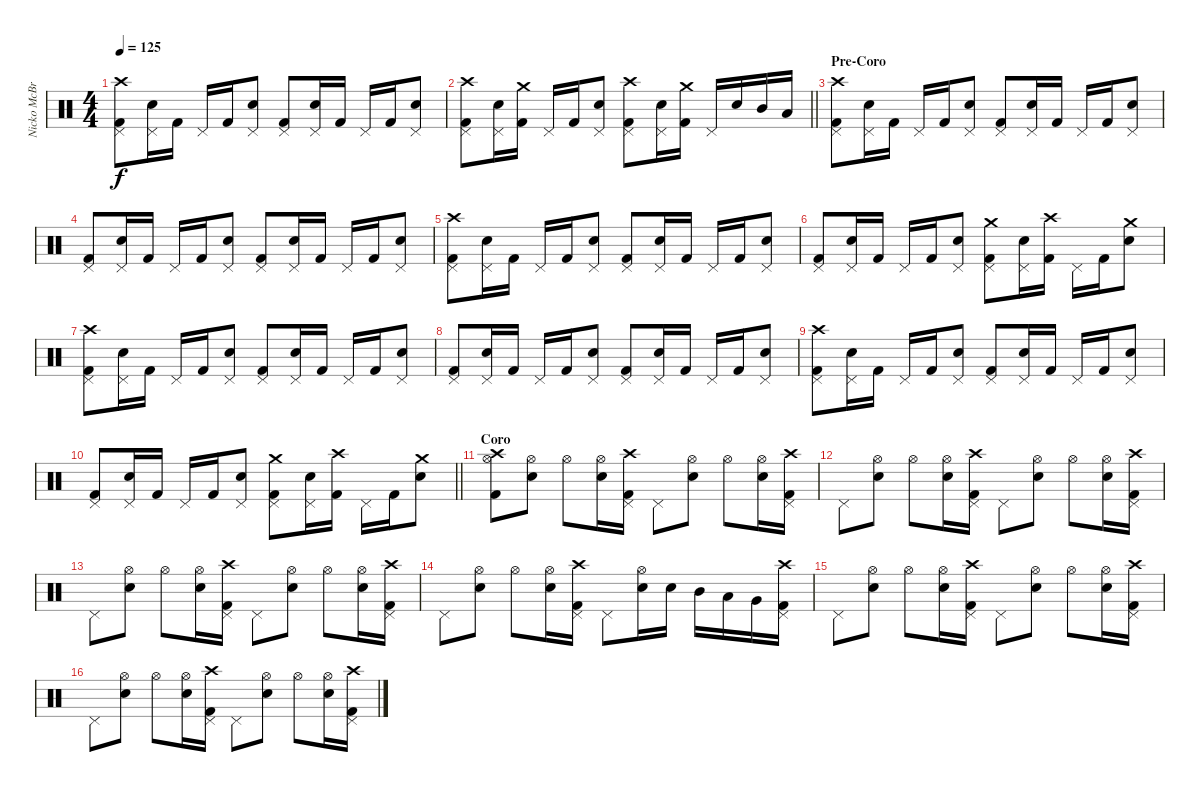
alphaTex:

\track ("Nicko McBrain" "Nicko McBr") {instrument percussion}
\staff {score}
\articulation defaults
\ts (4 4)
\tempo 125
\clef neutral
\ks c
("Kick (hit) 2" "Pedal Hi-Hat (hit)" "Crash high (hit)").8{dy f} ("Snare (hit) 2" "Pedal Hi-Hat (hit)").16 "Kick (hit) 2".16 "Pedal Hi-Hat (hit)".16 "Kick (hit) 2".16 ("Snare (hit) 2" "Pedal Hi-Hat (hit)").8 ("Kick (hit) 2" "Pedal Hi-Hat (hit)").8 ("Snare (hit) 2" "Pedal Hi-Hat (hit)").16 "Kick (hit) 2".16 "Pedal Hi-Hat (hit)".16 "Kick (hit) 2".16 ("Snare (hit) 2" "Pedal Hi-Hat (hit)").8 |
\barLineRight lightlight
("Kick (hit) 2" "Pedal Hi-Hat (hit)" "Crash high (hit)").8 ("Snare (hit) 2" "Pedal Hi-Hat (hit)").16 ("Kick (hit) 2" "Crash medium (hit)").16 "Pedal Hi-Hat (hit)".16 "Kick (hit) 2".16 ("Snare (hit) 2" "Pedal Hi-Hat (hit)").8 ("Kick (hit) 2" "Pedal Hi-Hat (hit)" "Crash high (hit)").8 ("Snare (hit) 2" "Pedal Hi-Hat (hit)").16 ("Kick (hit) 2" "Crash medium (hit)").16 "Pedal Hi-Hat (hit)".16 "Snare (hit) 2".16 "Mid Tom (hit)".16 "Low Tom (hit)".16 |
\section ("" "Pre-Coro")
("Kick (hit) 2" "Pedal Hi-Hat (hit)" "Crash high (hit)").8 ("Snare (hit) 2" "Pedal Hi-Hat (hit)").16 "Kick (hit) 2".16 "Pedal Hi-Hat (hit)".16 "Kick (hit) 2".16 ("Snare (hit) 2" "Pedal Hi-Hat (hit)").8 ("Kick (hit) 2" "Pedal Hi-Hat (hit)").8 ("Snare (hit) 2" "Pedal Hi-Hat (hit)").16 "Kick (hit) 2".16 "Pedal Hi-Hat (hit)".16 "Kick (hit) 2".16 ("Snare (hit) 2" "Pedal Hi-Hat (hit)").8 |
("Kick (hit) 2" "Pedal Hi-Hat (hit)").8 ("Snare (hit) 2" "Pedal Hi-Hat (hit)").16 "Kick (hit) 2".16 "Pedal Hi-Hat (hit)".16 "Kick (hit) 2".16 ("Snare (hit) 2" "Pedal Hi-Hat (hit)").8 ("Kick (hit) 2" "Pedal Hi-Hat (hit)").8 ("Snare (hit) 2" "Pedal Hi-Hat (hit)").16 "Kick (hit) 2".16 "Pedal Hi-Hat (hit)".16 "Kick (hit) 2".16 ("Snare (hit) 2" "Pedal Hi-Hat (hit)").8 |
("Kick (hit) 2" "Pedal Hi-Hat (hit)" "Crash high (hit)").8 ("Snare (hit) 2" "Pedal Hi-Hat (hit)").16 "Kick (hit) 2".16 "Pedal Hi-Hat (hit)".16 "Kick (hit) 2".16 ("Snare (hit) 2" "Pedal Hi-Hat (hit)").8 ("Kick (hit) 2" "Pedal Hi-Hat (hit)").8 ("Snare (hit) 2" "Pedal Hi-Hat (hit)").16 "Kick (hit) 2".16 "Pedal Hi-Hat (hit)".16 "Kick (hit) 2".16 ("Snare (hit) 2" "Pedal Hi-Hat (hit)").8 |
("Kick (hit) 2" "Pedal Hi-Hat (hit)").8 ("Snare (hit) 2" "Pedal Hi-Hat (hit)").16 "Kick (hit) 2".16 "Pedal Hi-Hat (hit)".16 "Kick (hit) 2".16 ("Snare (hit) 2" "Pedal Hi-Hat (hit)").8 ("Kick (hit) 2" "Pedal Hi-Hat (hit)" "Crash medium (hit)").8 ("Snare (hit) 2" "Pedal Hi-Hat (hit)").16 ("Kick (hit) 2" "Crash high (hit)").16 "Pedal Hi-Hat (hit)".16 "Kick (hit) 2".16 ("Snare (hit) 2" "Crash medium (hit)").8 |
("Kick (hit) 2" "Pedal Hi-Hat (hit)" "Crash high (hit)").8 ("Snare (hit) 2" "Pedal Hi-Hat (hit)").16 "Kick (hit) 2".16 "Pedal Hi-Hat (hit)".16 "Kick (hit) 2".16 ("Snare (hit) 2" "Pedal Hi-Hat (hit)").8 ("Kick (hit) 2" "Pedal Hi-Hat (hit)").8 ("Snare (hit) 2" "Pedal Hi-Hat (hit)").16 "Kick (hit) 2".16 "Pedal Hi-Hat (hit)".16 "Kick (hit) 2".16 ("Snare (hit) 2" "Pedal Hi-Hat (hit)").8 |
("Kick (hit) 2" "Pedal Hi-Hat (hit)").8 ("Snare (hit) 2" "Pedal Hi-Hat (hit)").16 "Kick (hit) 2".16 "Pedal Hi-Hat (hit)".16 "Kick (hit) 2".16 ("Snare (hit) 2" "Pedal Hi-Hat (hit)").8 ("Kick (hit) 2" "Pedal Hi-Hat (hit)").8 ("Snare (hit) 2" "Pedal Hi-Hat (hit)").16 "Kick (hit) 2".16 "Pedal Hi-Hat (hit)".16 "Kick (hit) 2".16 ("Snare (hit) 2" "Pedal Hi-Hat (hit)").8 |
("Kick (hit) 2" "Pedal Hi-Hat (hit)" "Crash high (hit)").8 ("Snare (hit) 2" "Pedal Hi-Hat (hit)").16 "Kick (hit) 2".16 "Pedal Hi-Hat (hit)".16 "Kick (hit) 2".16 ("Snare (hit) 2" "Pedal Hi-Hat (hit)").8 ("Kick (hit) 2" "Pedal Hi-Hat (hit)").8 ("Snare (hit) 2" "Pedal Hi-Hat (hit)").16 "Kick (hit) 2".16 "Pedal Hi-Hat (hit)".16 "Kick (hit) 2".16 ("Snare (hit) 2" "Pedal Hi-Hat (hit)").8 |
\barLineRight lightlight
("Kick (hit) 2" "Pedal Hi-Hat (hit)").8 ("Snare (hit) 2" "Pedal Hi-Hat (hit)").16 "Kick (hit) 2".16 "Pedal Hi-Hat (hit)".16 "Kick (hit) 2".16 ("Snare (hit) 2" "Pedal Hi-Hat (hit)").8 ("Kick (hit) 2" "Pedal Hi-Hat (hit)" "Crash medium (hit)").8 ("Snare (hit) 2" "Pedal Hi-Hat (hit)").16 ("Kick (hit) 2" "Crash high (hit)").16 "Pedal Hi-Hat (hit)".16 "Kick (hit) 2".16 ("Snare (hit) 2" "Crash medium (hit)").8 |
\section ("" "Coro")
("Kick (hit) 2" "Hi-Hat (open)" "Crash high (hit)").8 ("Snare (hit) 2" "Hi-Hat (open)").8 "Hi-Hat (open)".8 ("Snare (hit) 2" "Hi-Hat (open)").16 ("Kick (hit) 2" "Pedal Hi-Hat (hit)" "Crash high (hit)").16 "Pedal Hi-Hat (hit)".8 ("Snare (hit) 2" "Hi-Hat (open)").8 "Hi-Hat (open)".8 ("Snare (hit) 2" "Hi-Hat (open)").16 ("Kick (hit) 2" "Pedal Hi-Hat (hit)" "Crash high (hit)").16 |
"Pedal Hi-Hat (hit)".8 ("Snare (hit) 2" "Hi-Hat (open)").8 "Hi-Hat (open)".8 ("Snare (hit) 2" "Hi-Hat (open)").16 ("Kick (hit) 2" "Pedal Hi-Hat (hit)" "Crash high (hit)").16 "Pedal Hi-Hat (hit)".8 ("Snare (hit) 2" "Hi-Hat (open)").8 "Hi-Hat (open)".8 ("Snare (hit) 2" "Hi-Hat (open)").16 ("Kick (hit) 2" "Pedal Hi-Hat (hit)" "Crash high (hit)").16 |
"Pedal Hi-Hat (hit)".8 ("Snare (hit) 2" "Hi-Hat (open)").8 "Hi-Hat (open)".8 ("Snare (hit) 2" "Hi-Hat (open)").16 ("Kick (hit) 2" "Pedal Hi-Hat (hit)" "Crash high (hit)").16 "Pedal Hi-Hat (hit)".8 ("Snare (hit) 2" "Hi-Hat (open)").8 "Hi-Hat (open)".8 ("Snare (hit) 2" "Hi-Hat (open)").16 ("Kick (hit) 2" "Pedal Hi-Hat (hit)" "Crash high (hit)").16 |
"Pedal Hi-Hat (hit)".8 ("Snare (hit) 2" "Hi-Hat (open)").8 "Hi-Hat (open)".8 ("Snare (hit) 2" "Hi-Hat (open)").16 ("Kick (hit) 2" "Pedal Hi-Hat (hit)" "Crash high (hit)").16 "Pedal Hi-Hat (hit)".8 ("Snare (hit) 2" "Hi-Hat (open)").16 "Snare (hit) 2".16 "Mid Tom (hit)".16 "Low Tom (hit)".16 "Very Low Tom (hit)".16 ("Kick (hit) 2" "Pedal Hi-Hat (hit)" "Crash high (hit)").16 |
"Pedal Hi-Hat (hit)".8 ("Snare (hit) 2" "Hi-Hat (open)").8 "Hi-Hat (open)".8 ("Snare (hit) 2" "Hi-Hat (open)").16 ("Kick (hit) 2" "Pedal Hi-Hat (hit)" "Crash high (hit)").16 "Pedal Hi-Hat (hit)".8 ("Snare (hit) 2" "Hi-Hat (open)").8 "Hi-Hat (open)".8 ("Snare (hit) 2" "Hi-Hat (open)").16 ("Kick (hit) 2" "Pedal Hi-Hat (hit)" "Crash high (hit)").16 |
"Pedal Hi-Hat (hit)".8 ("Snare (hit) 2" "Hi-Hat (open)").8 "Hi-Hat (open)".8 ("Snare (hit) 2" "Hi-Hat (open)").16 ("Kick (hit) 2" "Pedal Hi-Hat (hit)" "Crash high (hit)").16 "Pedal Hi-Hat (hit)".8 ("Snare (hit) 2" "Hi-Hat (open)").8 "Hi-Hat (open)".8 ("Snare (hit) 2" "Hi-Hat (open)").16 ("Kick (hit) 2" "Pedal Hi-Hat (hit)" "Crash high (hit)").16
